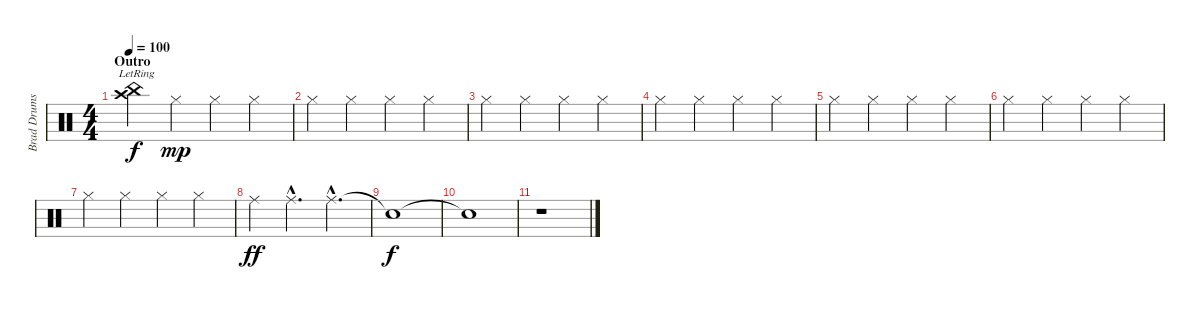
\track ("Brad Drums" "Brad Drums") {instrument percussion}
\staff {score}
\articulation defaults
\ts (4 4)
\section ("" "Outro")
\tempo 100
\clef neutral
\ks c
("Crash high (hit)"{lr} "China (hit)"{lr}).4{dy f} "Hi-Hat (closed)".4{dy mp} "Hi-Hat (closed)".4 "Hi-Hat (closed)".4 |
"Hi-Hat (closed)".4 "Hi-Hat (closed)".4 "Hi-Hat (closed)".4 "Hi-Hat (closed)".4 |
"Hi-Hat (closed)".4 "Hi-Hat (closed)".4 "Hi-Hat (closed)".4 "Hi-Hat (closed)".4 |
"Hi-Hat (closed)".4 "Hi-Hat (closed)".4 "Hi-Hat (closed)".4 "Hi-Hat (closed)".4 |
"Hi-Hat (closed)".4 "Hi-Hat (closed)".4 "Hi-Hat (closed)".4 "Hi-Hat (closed)".4 |
"Hi-Hat (closed)".4 "Hi-Hat (closed)".4 "Hi-Hat (closed)".4 "Hi-Hat (closed)".4 |
"Hi-Hat (closed)".4 "Hi-Hat (closed)".4 "Hi-Hat (closed)".4 "Hi-Hat (closed)".4 |
"Ride (middle)".4{dy ff} "Ride (middle)"{hac}.4{d} "Ride (middle)"{hac}.4{d} |
"Snare (hit)"{t}.1{dy f} |
"Snare (hit)"{t}.1 |
r.1
